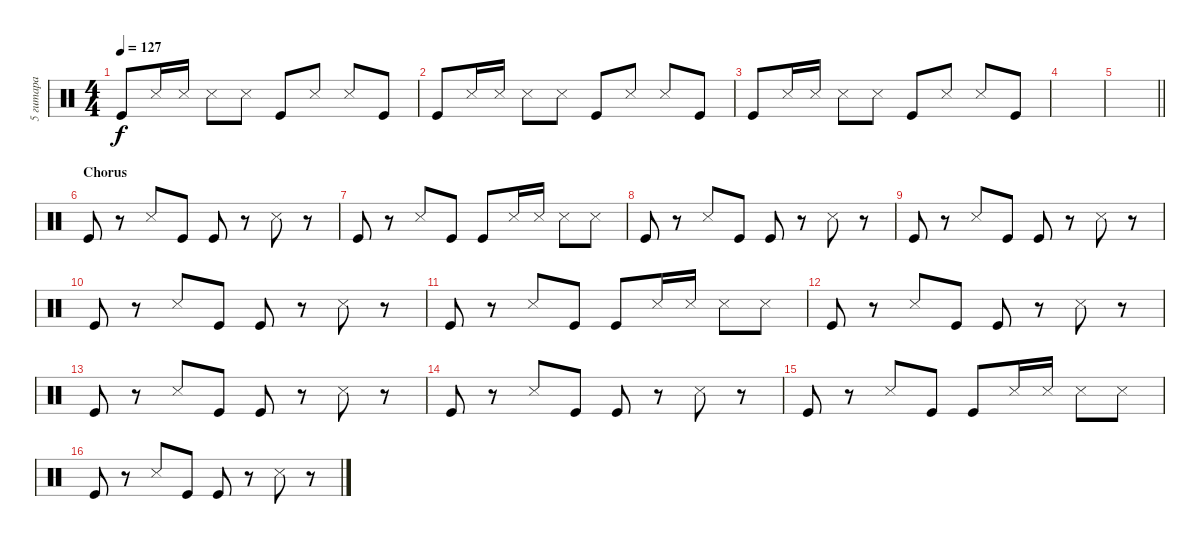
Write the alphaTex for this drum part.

\track ("5 гитара" "5 гитара") {instrument percussion}
\staff {score}
\articulation defaults
\ts (4 4)
\tempo 127
\clef neutral
\ks c "Kick (hit)".8{dy f} "Snare (side stick) 3".16 "Snare (side stick) 3".16 "Snare (side stick) 3".8 "Snare (side stick) 3".8 "Kick (hit)".8 "Snare (side stick) 3".8 "Snare (side stick) 3".8 "Kick (hit)".8
|
"Kick (hit)".8 "Snare (side stick) 3".16 "Snare (side stick) 3".16 "Snare (side stick) 3".8 "Snare (side stick) 3".8 "Kick (hit)".8 "Snare (side stick) 3".8 "Snare (side stick) 3".8 "Kick (hit)".8 |
"Kick (hit)".8 "Snare (side stick) 3".16 "Snare (side stick) 3".16 "Snare (side stick) 3".8 "Snare (side stick) 3".8 "Kick (hit)".8 "Snare (side stick) 3".8 "Snare (side stick) 3".8 "Kick (hit)".8 |
|
\barLineRight lightlight
|
\section ("" "Chorus")
"Kick (hit)".8 r.8 "Snare (side stick) 3".8 "Kick (hit)".8 "Kick (hit)".8 r.8 "Snare (side stick) 3".8 r.8 |
"Kick (hit)".8 r.8 "Snare (side stick) 3".8 "Kick (hit)".8 "Kick (hit)".8 "Snare (side stick) 3".16 "Snare (side stick) 3".16 "Snare (side stick) 3".8 "Snare (side stick) 3".8 |
"Kick (hit)".8 r.8 "Snare (side stick) 3".8 "Kick (hit)".8 "Kick (hit)".8 r.8 "Snare (side stick) 3".8 r.8 |
"Kick (hit)".8 r.8 "Snare (side stick) 3".8 "Kick (hit)".8 "Kick (hit)".8 r.8 "Snare (side stick) 3".8 r.8 |
"Kick (hit)".8 r.8 "Snare (side stick) 3".8 "Kick (hit)".8 "Kick (hit)".8 r.8 "Snare (side stick) 3".8 r.8 |
"Kick (hit)".8 r.8 "Snare (side stick) 3".8 "Kick (hit)".8 "Kick (hit)".8 "Snare (side stick) 3".16 "Snare (side stick) 3".16 "Snare (side stick) 3".8 "Snare (side stick) 3".8 |
"Kick (hit)".8 r.8 "Snare (side stick) 3".8 "Kick (hit)".8 "Kick (hit)".8 r.8 "Snare (side stick) 3".8 r.8 |
"Kick (hit)".8 r.8 "Snare (side stick) 3".8 "Kick (hit)".8 "Kick (hit)".8 r.8 "Snare (side stick) 3".8 r.8 |
"Kick (hit)".8 r.8 "Snare (side stick) 3".8 "Kick (hit)".8 "Kick (hit)".8 r.8 "Snare (side stick) 3".8 r.8 |
"Kick (hit)".8 r.8 "Snare (side stick) 3".8 "Kick (hit)".8 "Kick (hit)".8 "Snare (side stick) 3".16 "Snare (side stick) 3".16 "Snare (side stick) 3".8 "Snare (side stick) 3".8 |
"Kick (hit)".8 r.8 "Snare (side stick) 3".8 "Kick (hit)".8 "Kick (hit)".8 r.8 "Snare (side stick) 3".8 r.8
